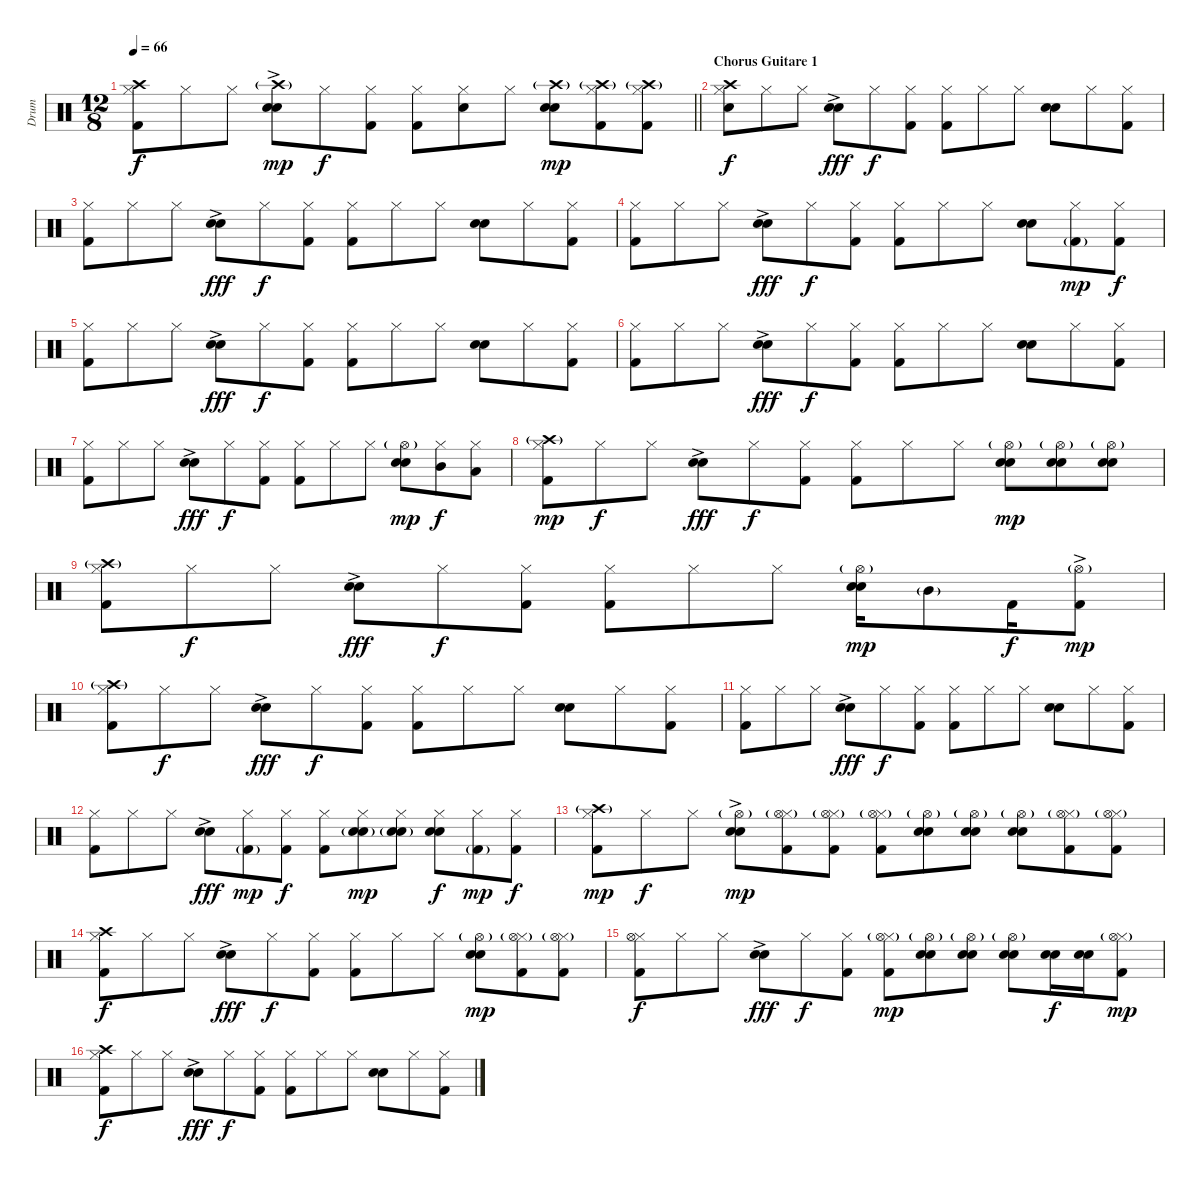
\track ("Drum" "Drum") {instrument percussion}
\staff {score}
\articulation defaults
\ts (12 8)
\tempo 66
\clef neutral
\barLineRight lightlight
\ks c
("Hi-Hat (closed)" "Kick (hit) 2" "Crash high (hit)").8{dy f} "Hi-Hat (closed)".8 "Hi-Hat (closed)".8 ("Electric Snare (hit)"{ac} "Hand Clap (hit)" "Crash high (hit)"{g}).8{dy mp} "Hi-Hat (closed)".8{dy f} ("Hi-Hat (closed)" "Kick (hit) 2").8 ("Hi-Hat (closed)" "Kick (hit) 2").8 ("Hi-Hat (closed)" "Electric Snare (hit)").8 "Hi-Hat (closed)".8 ("Electric Snare (hit)" "Hand Clap (hit)" "Crash high (hit)"{g}).8{dy mp} ("Hi-Hat (closed)" "Kick (hit) 2" "Crash high (hit)"{g}).8 ("Hi-Hat (closed)" "Kick (hit) 2" "Crash high (hit)"{g}).8 |
\section ("" "Chorus Guitare 1")
("Hi-Hat (closed)" "Electric Snare (hit)" "Crash high (hit)").8{dy f} "Hi-Hat (closed)".8 "Hi-Hat (closed)".8 ("Electric Snare (hit)"{ac} "Hand Clap (hit)").8{dy fff} "Hi-Hat (closed)".8{dy f} ("Hi-Hat (closed)" "Kick (hit) 2").8 ("Hi-Hat (closed)" "Kick (hit) 2").8 "Hi-Hat (closed)".8 "Hi-Hat (closed)".8 ("Electric Snare (hit)" "Hand Clap (hit)").8 "Hi-Hat (closed)".8 ("Hi-Hat (closed)" "Kick (hit) 2").8 |
("Hi-Hat (closed)" "Kick (hit) 2").8 "Hi-Hat (closed)".8 "Hi-Hat (closed)".8 ("Electric Snare (hit)"{ac} "Hand Clap (hit)").8{dy fff} "Hi-Hat (closed)".8{dy f} ("Hi-Hat (closed)" "Kick (hit) 2").8 ("Hi-Hat (closed)" "Kick (hit) 2").8 "Hi-Hat (closed)".8 "Hi-Hat (closed)".8 ("Electric Snare (hit)" "Hand Clap (hit)").8 "Hi-Hat (closed)".8 ("Hi-Hat (closed)" "Kick (hit) 2").8 |
("Hi-Hat (closed)" "Kick (hit) 2").8 "Hi-Hat (closed)".8 "Hi-Hat (closed)".8 ("Electric Snare (hit)"{ac} "Hand Clap (hit)").8{dy fff} "Hi-Hat (closed)".8{dy f} ("Hi-Hat (closed)" "Kick (hit) 2").8 ("Hi-Hat (closed)" "Kick (hit) 2").8 "Hi-Hat (closed)".8 "Hi-Hat (closed)".8 ("Electric Snare (hit)" "Hand Clap (hit)").8 ("Hi-Hat (closed)" "Kick (hit) 2"{g}).8{dy mp} ("Hi-Hat (closed)" "Kick (hit) 2").8{dy f} |
("Hi-Hat (closed)" "Kick (hit) 2").8 "Hi-Hat (closed)".8 "Hi-Hat (closed)".8 ("Electric Snare (hit)"{ac} "Hand Clap (hit)").8{dy fff} "Hi-Hat (closed)".8{dy f} ("Hi-Hat (closed)" "Kick (hit) 2").8 ("Hi-Hat (closed)" "Kick (hit) 2").8 "Hi-Hat (closed)".8 "Hi-Hat (closed)".8 ("Electric Snare (hit)" "Hand Clap (hit)").8 "Hi-Hat (closed)".8 ("Hi-Hat (closed)" "Kick (hit) 2").8 |
("Hi-Hat (closed)" "Kick (hit) 2").8 "Hi-Hat (closed)".8 "Hi-Hat (closed)".8 ("Electric Snare (hit)"{ac} "Hand Clap (hit)").8{dy fff} "Hi-Hat (closed)".8{dy f} ("Hi-Hat (closed)" "Kick (hit) 2").8 ("Hi-Hat (closed)" "Kick (hit) 2").8 "Hi-Hat (closed)".8 "Hi-Hat (closed)".8 ("Electric Snare (hit)" "Hand Clap (hit)").8 "Hi-Hat (closed)".8 ("Hi-Hat (closed)" "Kick (hit) 2").8 |
("Hi-Hat (closed)" "Kick (hit) 2").8 "Hi-Hat (closed)".8 "Hi-Hat (closed)".8 ("Electric Snare (hit)"{ac} "Hand Clap (hit)").8{dy fff} "Hi-Hat (closed)".8{dy f} ("Hi-Hat (closed)" "Kick (hit) 2").8 ("Hi-Hat (closed)" "Kick (hit) 2").8 "Hi-Hat (closed)".8 "Hi-Hat (closed)".8 ("Electric Snare (hit)" "Hand Clap (hit)" "Hi-Hat (open)"{g}).8{dy mp} ("Hi-Hat (closed)" "Mid Tom (hit)").8{dy f} ("Hi-Hat (closed)" "Low Tom (hit)").8 |
("Hi-Hat (closed)" "Kick (hit) 2" "Crash high (hit)"{g}).8{dy mp} "Hi-Hat (closed)".8{dy f} "Hi-Hat (closed)".8 ("Electric Snare (hit)"{ac} "Hand Clap (hit)").8{dy fff} "Hi-Hat (closed)".8{dy f} ("Hi-Hat (closed)" "Kick (hit) 2").8 ("Hi-Hat (closed)" "Kick (hit) 2").8 "Hi-Hat (closed)".8 "Hi-Hat (closed)".8 ("Electric Snare (hit)" "Hand Clap (hit)" "Hi-Hat (open)"{g}).8{dy mp} ("Electric Snare (hit)" "Hand Clap (hit)" "Hi-Hat (open)"{g}).8 ("Electric Snare (hit)" "Hand Clap (hit)" "Hi-Hat (open)"{g}).8 |
("Hi-Hat (closed)" "Kick (hit) 2" "Crash high (hit)"{g}).8 "Hi-Hat (closed)".8{dy f} "Hi-Hat (closed)".8 ("Electric Snare (hit)"{ac} "Hand Clap (hit)").8{dy fff} "Hi-Hat (closed)".8{dy f} ("Hi-Hat (closed)" "Kick (hit) 2").8 ("Hi-Hat (closed)" "Kick (hit) 2").8 "Hi-Hat (closed)".8 "Hi-Hat (closed)".8 ("Electric Snare (hit)" "Hand Clap (hit)" "Hi-Hat (open)"{g}).16{dy mp} "Mid Tom (hit)"{g}.8 "Kick (hit) 2".16{dy f} ("Kick (hit) 2"{ac} "Hi-Hat (open)"{g}).8{dy mp} |
("Hi-Hat (closed)" "Kick (hit) 2" "Crash high (hit)"{g}).8 "Hi-Hat (closed)".8{dy f} "Hi-Hat (closed)".8 ("Electric Snare (hit)"{ac} "Hand Clap (hit)").8{dy fff} "Hi-Hat (closed)".8{dy f} ("Hi-Hat (closed)" "Kick (hit) 2").8 ("Hi-Hat (closed)" "Kick (hit) 2").8 "Hi-Hat (closed)".8 "Hi-Hat (closed)".8 ("Electric Snare (hit)" "Hand Clap (hit)").8 "Hi-Hat (closed)".8 ("Hi-Hat (closed)" "Kick (hit) 2").8 |
("Hi-Hat (closed)" "Kick (hit) 2").8 "Hi-Hat (closed)".8 "Hi-Hat (closed)".8 ("Electric Snare (hit)"{ac} "Hand Clap (hit)").8{dy fff} "Hi-Hat (closed)".8{dy f} ("Hi-Hat (closed)" "Kick (hit) 2").8 ("Hi-Hat (closed)" "Kick (hit) 2").8 "Hi-Hat (closed)".8 "Hi-Hat (closed)".8 ("Electric Snare (hit)" "Hand Clap (hit)").8 "Hi-Hat (closed)".8 ("Hi-Hat (closed)" "Kick (hit) 2").8 |
("Hi-Hat (closed)" "Kick (hit) 2").8 "Hi-Hat (closed)".8 "Hi-Hat (closed)".8 ("Electric Snare (hit)"{ac} "Hand Clap (hit)").8{dy fff} ("Hi-Hat (closed)" "Kick (hit) 2"{g}).8{dy mp} ("Hi-Hat (closed)" "Kick (hit) 2").8{dy f} ("Hi-Hat (closed)" "Kick (hit) 2").8 ("Hi-Hat (closed)" "Electric Snare (hit)"{g} "Hand Clap (hit)"{g}).8{dy mp} ("Hi-Hat (closed)" "Electric Snare (hit)"{g} "Hand Clap (hit)"{g}).8 ("Hi-Hat (closed)" "Electric Snare (hit)" "Hand Clap (hit)").8{dy f} ("Hi-Hat (closed)" "Kick (hit) 2"{g}).8{dy mp} ("Hi-Hat (closed)" "Kick (hit) 2").8{dy f} |
("Hi-Hat (closed)" "Kick (hit) 2" "Crash high (hit)"{g}).8{dy mp} "Hi-Hat (closed)".8{dy f} "Hi-Hat (closed)".8 ("Electric Snare (hit)"{ac} "Hand Clap (hit)" "Hi-Hat (open)"{g}).8{dy mp} ("Hi-Hat (closed)" "Kick (hit) 2" "Hi-Hat (open)"{g}).8 ("Hi-Hat (closed)" "Kick (hit) 2" "Hi-Hat (open)"{g}).8 ("Hi-Hat (closed)" "Kick (hit) 2" "Hi-Hat (open)"{g}).8 ("Electric Snare (hit)" "Hand Clap (hit)" "Hi-Hat (open)"{g}).8 ("Electric Snare (hit)" "Hand Clap (hit)" "Hi-Hat (open)"{g}).8 ("Electric Snare (hit)" "Hand Clap (hit)" "Hi-Hat (open)"{g}).8 ("Hi-Hat (closed)" "Kick (hit) 2" "Hi-Hat (open)"{g}).8 ("Hi-Hat (closed)" "Kick (hit) 2" "Hi-Hat (open)"{g}).8 |
("Hi-Hat (closed)" "Kick (hit) 2" "Crash high (hit)").8{dy f} "Hi-Hat (closed)".8 "Hi-Hat (closed)".8 ("Electric Snare (hit)"{ac} "Hand Clap (hit)").8{dy fff} "Hi-Hat (closed)".8{dy f} ("Hi-Hat (closed)" "Kick (hit) 2").8 ("Hi-Hat (closed)" "Kick (hit) 2").8 "Hi-Hat (closed)".8 "Hi-Hat (closed)".8 ("Electric Snare (hit)" "Hand Clap (hit)" "Hi-Hat (open)"{g}).8{dy mp} ("Hi-Hat (closed)" "Kick (hit) 2" "Hi-Hat (open)"{g}).8 ("Hi-Hat (closed)" "Kick (hit) 2" "Hi-Hat (open)"{g}).8 |
("Hi-Hat (closed)" "Kick (hit) 2" "Hi-Hat (open)").8{dy f} "Hi-Hat (closed)".8 "Hi-Hat (closed)".8 ("Electric Snare (hit)"{ac} "Hand Clap (hit)").8{dy fff} "Hi-Hat (closed)".8{dy f} ("Hi-Hat (closed)" "Kick (hit) 2").8 ("Hi-Hat (closed)" "Kick (hit) 2" "Hi-Hat (open)"{g}).8{dy mp} ("Electric Snare (hit)" "Hand Clap (hit)" "Hi-Hat (open)"{g}).8 ("Electric Snare (hit)" "Hand Clap (hit)" "Hi-Hat (open)"{g}).8 ("Electric Snare (hit)" "Hand Clap (hit)" "Hi-Hat (open)"{g}).8 ("Electric Snare (hit)" "Hand Clap (hit)").16{dy f} ("Electric Snare (hit)" "Hand Clap (hit)").16 ("Hi-Hat (closed)" "Kick (hit) 2" "Hi-Hat (open)"{g}).8{dy mp} |
("Hi-Hat (closed)" "Kick (hit) 2" "Crash high (hit)").8{dy f} "Hi-Hat (closed)".8 "Hi-Hat (closed)".8 ("Electric Snare (hit)"{ac} "Hand Clap (hit)").8{dy fff} "Hi-Hat (closed)".8{dy f} ("Hi-Hat (closed)" "Kick (hit) 2").8 ("Hi-Hat (closed)" "Kick (hit) 2").8 "Hi-Hat (closed)".8 "Hi-Hat (closed)".8 ("Electric Snare (hit)" "Hand Clap (hit)").8 "Hi-Hat (closed)".8 ("Hi-Hat (closed)" "Kick (hit) 2").8
